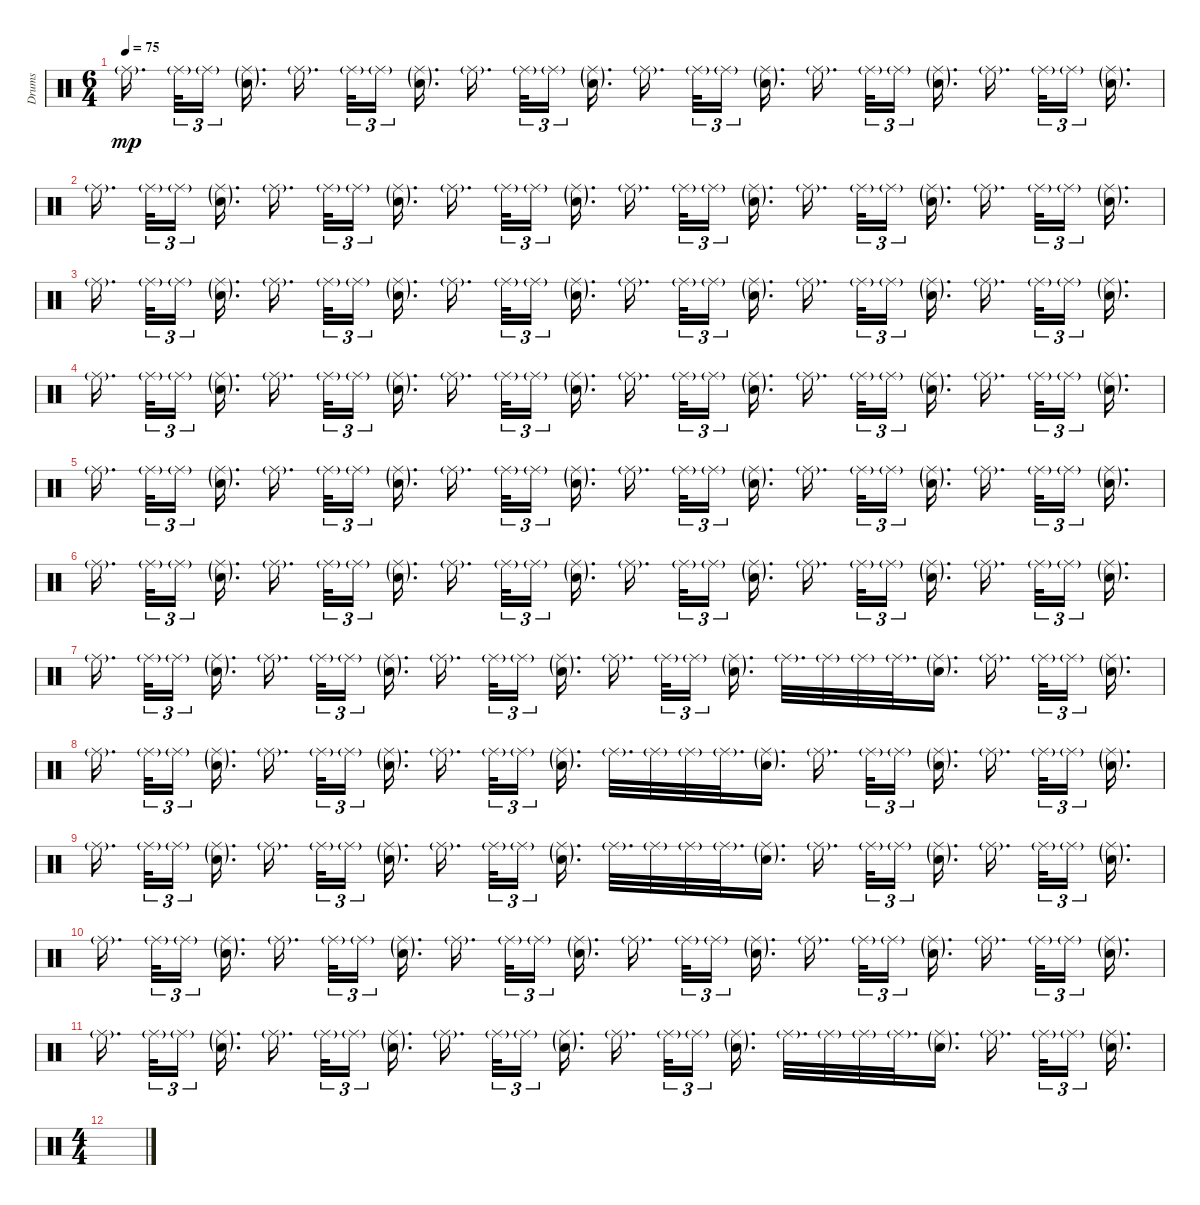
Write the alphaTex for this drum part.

\track ("Drums" "Drums") {instrument percussion}
\staff {score}
\articulation defaults
\ts (6 4)
\tempo 75
\clef neutral
\ks c "Ride (middle)"{g}.16{d dy mp beam splitsecondary} "Ride (middle)"{g}.32{tu (3 2)} "Ride (middle)"{g}.16{tu (3 2) beam splitsecondary}
("Ride (middle)"{g} "Snare (hit) 2"{g}).16{d} "Ride (middle)"{g}.16{d beam splitsecondary} "Ride (middle)"{g}.32{tu (3 2)} "Ride (middle)"{g}.16{tu (3 2) beam splitsecondary} ("Ride (middle)"{g} "Snare (hit) 2"{g}).16{d} "Ride (middle)"{g}.16{d beam splitsecondary} "Ride (middle)"{g}.32{tu (3 2)} "Ride (middle)"{g}.16{tu (3 2) beam splitsecondary} ("Ride (middle)"{g} "Snare (hit) 2"{g}).16{d} "Ride (middle)"{g}.16{d beam splitsecondary} "Ride (middle)"{g}.32{tu (3 2)} "Ride (middle)"{g}.16{tu (3 2) beam splitsecondary} ("Ride (middle)"{g} "Snare (hit) 2"{g}).16{d} "Ride (middle)"{g}.16{d beam splitsecondary} "Ride (middle)"{g}.32{tu (3 2)} "Ride (middle)"{g}.16{tu (3 2) beam splitsecondary} ("Ride (middle)"{g} "Snare (hit) 2"{g}).16{d} "Ride (middle)"{g}.16{d beam splitsecondary} "Ride (middle)"{g}.32{tu (3 2)} "Ride (middle)"{g}.16{tu (3 2) beam splitsecondary} ("Ride (middle)"{g} "Snare (hit) 2"{g}).16{d} |
"Ride (middle)"{g}.16{d beam splitsecondary} "Ride (middle)"{g}.32{tu (3 2)} "Ride (middle)"{g}.16{tu (3 2) beam splitsecondary} ("Ride (middle)"{g} "Snare (hit) 2"{g}).16{d} "Ride (middle)"{g}.16{d beam splitsecondary} "Ride (middle)"{g}.32{tu (3 2)} "Ride (middle)"{g}.16{tu (3 2) beam splitsecondary} ("Ride (middle)"{g} "Snare (hit) 2"{g}).16{d} "Ride (middle)"{g}.16{d beam splitsecondary} "Ride (middle)"{g}.32{tu (3 2)} "Ride (middle)"{g}.16{tu (3 2) beam splitsecondary} ("Ride (middle)"{g} "Snare (hit) 2"{g}).16{d} "Ride (middle)"{g}.16{d beam splitsecondary} "Ride (middle)"{g}.32{tu (3 2)} "Ride (middle)"{g}.16{tu (3 2) beam splitsecondary} ("Ride (middle)"{g} "Snare (hit) 2"{g}).16{d} "Ride (middle)"{g}.16{d beam splitsecondary} "Ride (middle)"{g}.32{tu (3 2)} "Ride (middle)"{g}.16{tu (3 2) beam splitsecondary} ("Ride (middle)"{g} "Snare (hit) 2"{g}).16{d} "Ride (middle)"{g}.16{d beam splitsecondary} "Ride (middle)"{g}.32{tu (3 2)} "Ride (middle)"{g}.16{tu (3 2) beam splitsecondary} ("Ride (middle)"{g} "Snare (hit) 2"{g}).16{d} |
"Ride (middle)"{g}.16{d beam splitsecondary} "Ride (middle)"{g}.32{tu (3 2)} "Ride (middle)"{g}.16{tu (3 2) beam splitsecondary} ("Ride (middle)"{g} "Snare (hit) 2"{g}).16{d} "Ride (middle)"{g}.16{d beam splitsecondary} "Ride (middle)"{g}.32{tu (3 2)} "Ride (middle)"{g}.16{tu (3 2) beam splitsecondary} ("Ride (middle)"{g} "Snare (hit) 2"{g}).16{d} "Ride (middle)"{g}.16{d beam splitsecondary} "Ride (middle)"{g}.32{tu (3 2)} "Ride (middle)"{g}.16{tu (3 2) beam splitsecondary} ("Ride (middle)"{g} "Snare (hit) 2"{g}).16{d} "Ride (middle)"{g}.16{d beam splitsecondary} "Ride (middle)"{g}.32{tu (3 2)} "Ride (middle)"{g}.16{tu (3 2) beam splitsecondary} ("Ride (middle)"{g} "Snare (hit) 2"{g}).16{d} "Ride (middle)"{g}.16{d beam splitsecondary} "Ride (middle)"{g}.32{tu (3 2)} "Ride (middle)"{g}.16{tu (3 2) beam splitsecondary} ("Ride (middle)"{g} "Snare (hit) 2"{g}).16{d} "Ride (middle)"{g}.16{d beam splitsecondary} "Ride (middle)"{g}.32{tu (3 2)} "Ride (middle)"{g}.16{tu (3 2) beam splitsecondary} ("Ride (middle)"{g} "Snare (hit) 2"{g}).16{d} |
"Ride (middle)"{g}.16{d beam splitsecondary} "Ride (middle)"{g}.32{tu (3 2)} "Ride (middle)"{g}.16{tu (3 2) beam splitsecondary} ("Ride (middle)"{g} "Snare (hit) 2"{g}).16{d} "Ride (middle)"{g}.16{d beam splitsecondary} "Ride (middle)"{g}.32{tu (3 2)} "Ride (middle)"{g}.16{tu (3 2) beam splitsecondary} ("Ride (middle)"{g} "Snare (hit) 2"{g}).16{d} "Ride (middle)"{g}.16{d beam splitsecondary} "Ride (middle)"{g}.32{tu (3 2)} "Ride (middle)"{g}.16{tu (3 2) beam splitsecondary} ("Ride (middle)"{g} "Snare (hit) 2"{g}).16{d} "Ride (middle)"{g}.16{d beam splitsecondary} "Ride (middle)"{g}.32{tu (3 2)} "Ride (middle)"{g}.16{tu (3 2) beam splitsecondary} ("Ride (middle)"{g} "Snare (hit) 2"{g}).16{d} "Ride (middle)"{g}.16{d beam splitsecondary} "Ride (middle)"{g}.32{tu (3 2)} "Ride (middle)"{g}.16{tu (3 2) beam splitsecondary} ("Ride (middle)"{g} "Snare (hit) 2"{g}).16{d} "Ride (middle)"{g}.16{d beam splitsecondary} "Ride (middle)"{g}.32{tu (3 2)} "Ride (middle)"{g}.16{tu (3 2) beam splitsecondary} ("Ride (middle)"{g} "Snare (hit) 2"{g}).16{d} |
"Ride (middle)"{g}.16{d beam splitsecondary} "Ride (middle)"{g}.32{tu (3 2)} "Ride (middle)"{g}.16{tu (3 2) beam splitsecondary} ("Ride (middle)"{g} "Snare (hit) 2"{g}).16{d} "Ride (middle)"{g}.16{d beam splitsecondary} "Ride (middle)"{g}.32{tu (3 2)} "Ride (middle)"{g}.16{tu (3 2) beam splitsecondary} ("Ride (middle)"{g} "Snare (hit) 2"{g}).16{d} "Ride (middle)"{g}.16{d beam splitsecondary} "Ride (middle)"{g}.32{tu (3 2)} "Ride (middle)"{g}.16{tu (3 2) beam splitsecondary} ("Ride (middle)"{g} "Snare (hit) 2"{g}).16{d} "Ride (middle)"{g}.16{d beam splitsecondary} "Ride (middle)"{g}.32{tu (3 2)} "Ride (middle)"{g}.16{tu (3 2) beam splitsecondary} ("Ride (middle)"{g} "Snare (hit) 2"{g}).16{d} "Ride (middle)"{g}.16{d beam splitsecondary} "Ride (middle)"{g}.32{tu (3 2)} "Ride (middle)"{g}.16{tu (3 2) beam splitsecondary} ("Ride (middle)"{g} "Snare (hit) 2"{g}).16{d} "Ride (middle)"{g}.16{d beam splitsecondary} "Ride (middle)"{g}.32{tu (3 2)} "Ride (middle)"{g}.16{tu (3 2) beam splitsecondary} ("Ride (middle)"{g} "Snare (hit) 2"{g}).16{d} |
"Ride (middle)"{g}.16{d beam splitsecondary} "Ride (middle)"{g}.32{tu (3 2)} "Ride (middle)"{g}.16{tu (3 2) beam splitsecondary} ("Ride (middle)"{g} "Snare (hit) 2"{g}).16{d} "Ride (middle)"{g}.16{d beam splitsecondary} "Ride (middle)"{g}.32{tu (3 2)} "Ride (middle)"{g}.16{tu (3 2) beam splitsecondary} ("Ride (middle)"{g} "Snare (hit) 2"{g}).16{d} "Ride (middle)"{g}.16{d beam splitsecondary} "Ride (middle)"{g}.32{tu (3 2)} "Ride (middle)"{g}.16{tu (3 2) beam splitsecondary} ("Ride (middle)"{g} "Snare (hit) 2"{g}).16{d} "Ride (middle)"{g}.16{d beam splitsecondary} "Ride (middle)"{g}.32{tu (3 2)} "Ride (middle)"{g}.16{tu (3 2) beam splitsecondary} ("Ride (middle)"{g} "Snare (hit) 2"{g}).16{d} "Ride (middle)"{g}.16{d beam splitsecondary} "Ride (middle)"{g}.32{tu (3 2)} "Ride (middle)"{g}.16{tu (3 2) beam splitsecondary} ("Ride (middle)"{g} "Snare (hit) 2"{g}).16{d} "Ride (middle)"{g}.16{d beam splitsecondary} "Ride (middle)"{g}.32{tu (3 2)} "Ride (middle)"{g}.16{tu (3 2) beam splitsecondary} ("Ride (middle)"{g} "Snare (hit) 2"{g}).16{d} |
"Ride (middle)"{g}.16{d beam splitsecondary} "Ride (middle)"{g}.32{tu (3 2)} "Ride (middle)"{g}.16{tu (3 2) beam splitsecondary} ("Ride (middle)"{g} "Snare (hit) 2"{g}).16{d} "Ride (middle)"{g}.16{d beam splitsecondary} "Ride (middle)"{g}.32{tu (3 2)} "Ride (middle)"{g}.16{tu (3 2) beam splitsecondary} ("Ride (middle)"{g} "Snare (hit) 2"{g}).16{d} "Ride (middle)"{g}.16{d beam splitsecondary} "Ride (middle)"{g}.32{tu (3 2)} "Ride (middle)"{g}.16{tu (3 2) beam splitsecondary} ("Ride (middle)"{g} "Snare (hit) 2"{g}).16{d} "Ride (middle)"{g}.16{d beam splitsecondary} "Ride (middle)"{g}.32{tu (3 2)} "Ride (middle)"{g}.16{tu (3 2) beam splitsecondary} ("Ride (middle)"{g} "Snare (hit) 2"{g}).16{d} "Ride (middle)"{g}.32{d} "Ride (middle)"{g}.32 "Ride (middle)"{g}.32 "Ride (middle)"{g}.32{d} ("Ride (middle)"{g} "Snare (hit) 2"{g}).16{d} "Ride (middle)"{g}.16{d beam splitsecondary} "Ride (middle)"{g}.32{tu (3 2)} "Ride (middle)"{g}.16{tu (3 2) beam splitsecondary} ("Ride (middle)"{g} "Snare (hit) 2"{g}).16{d} |
"Ride (middle)"{g}.16{d beam splitsecondary} "Ride (middle)"{g}.32{tu (3 2)} "Ride (middle)"{g}.16{tu (3 2) beam splitsecondary} ("Ride (middle)"{g} "Snare (hit) 2"{g}).16{d} "Ride (middle)"{g}.16{d beam splitsecondary} "Ride (middle)"{g}.32{tu (3 2)} "Ride (middle)"{g}.16{tu (3 2) beam splitsecondary} ("Ride (middle)"{g} "Snare (hit) 2"{g}).16{d} "Ride (middle)"{g}.16{d beam splitsecondary} "Ride (middle)"{g}.32{tu (3 2)} "Ride (middle)"{g}.16{tu (3 2) beam splitsecondary} ("Ride (middle)"{g} "Snare (hit) 2"{g}).16{d} "Ride (middle)"{g}.32{d} "Ride (middle)"{g}.32 "Ride (middle)"{g}.32 "Ride (middle)"{g}.32{d} ("Ride (middle)"{g} "Snare (hit) 2"{g}).16{d} "Ride (middle)"{g}.16{d beam splitsecondary} "Ride (middle)"{g}.32{tu (3 2)} "Ride (middle)"{g}.16{tu (3 2) beam splitsecondary} ("Ride (middle)"{g} "Snare (hit) 2"{g}).16{d} "Ride (middle)"{g}.16{d beam splitsecondary} "Ride (middle)"{g}.32{tu (3 2)} "Ride (middle)"{g}.16{tu (3 2) beam splitsecondary} ("Ride (middle)"{g} "Snare (hit) 2"{g}).16{d} |
"Ride (middle)"{g}.16{d beam splitsecondary} "Ride (middle)"{g}.32{tu (3 2)} "Ride (middle)"{g}.16{tu (3 2) beam splitsecondary} ("Ride (middle)"{g} "Snare (hit) 2"{g}).16{d} "Ride (middle)"{g}.16{d beam splitsecondary} "Ride (middle)"{g}.32{tu (3 2)} "Ride (middle)"{g}.16{tu (3 2) beam splitsecondary} ("Ride (middle)"{g} "Snare (hit) 2"{g}).16{d} "Ride (middle)"{g}.16{d beam splitsecondary} "Ride (middle)"{g}.32{tu (3 2)} "Ride (middle)"{g}.16{tu (3 2) beam splitsecondary} ("Ride (middle)"{g} "Snare (hit) 2"{g}).16{d} "Ride (middle)"{g}.32{d} "Ride (middle)"{g}.32 "Ride (middle)"{g}.32 "Ride (middle)"{g}.32{d} ("Ride (middle)"{g} "Snare (hit) 2"{g}).16{d} "Ride (middle)"{g}.16{d beam splitsecondary} "Ride (middle)"{g}.32{tu (3 2)} "Ride (middle)"{g}.16{tu (3 2) beam splitsecondary} ("Ride (middle)"{g} "Snare (hit) 2"{g}).16{d} "Ride (middle)"{g}.16{d beam splitsecondary} "Ride (middle)"{g}.32{tu (3 2)} "Ride (middle)"{g}.16{tu (3 2) beam splitsecondary} ("Ride (middle)"{g} "Snare (hit) 2"{g}).16{d} |
"Ride (middle)"{g}.16{d beam splitsecondary} "Ride (middle)"{g}.32{tu (3 2)} "Ride (middle)"{g}.16{tu (3 2) beam splitsecondary} ("Ride (middle)"{g} "Snare (hit) 2"{g}).16{d} "Ride (middle)"{g}.16{d beam splitsecondary} "Ride (middle)"{g}.32{tu (3 2)} "Ride (middle)"{g}.16{tu (3 2) beam splitsecondary} ("Ride (middle)"{g} "Snare (hit) 2"{g}).16{d} "Ride (middle)"{g}.16{d beam splitsecondary} "Ride (middle)"{g}.32{tu (3 2)} "Ride (middle)"{g}.16{tu (3 2) beam splitsecondary} ("Ride (middle)"{g} "Snare (hit) 2"{g}).16{d} "Ride (middle)"{g}.16{d beam splitsecondary} "Ride (middle)"{g}.32{tu (3 2)} "Ride (middle)"{g}.16{tu (3 2) beam splitsecondary} ("Ride (middle)"{g} "Snare (hit) 2"{g}).16{d} "Ride (middle)"{g}.16{d beam splitsecondary} "Ride (middle)"{g}.32{tu (3 2)} "Ride (middle)"{g}.16{tu (3 2) beam splitsecondary} ("Ride (middle)"{g} "Snare (hit) 2"{g}).16{d} "Ride (middle)"{g}.16{d beam splitsecondary} "Ride (middle)"{g}.32{tu (3 2)} "Ride (middle)"{g}.16{tu (3 2) beam splitsecondary} ("Ride (middle)"{g} "Snare (hit) 2"{g}).16{d} |
"Ride (middle)"{g}.16{d beam splitsecondary} "Ride (middle)"{g}.32{tu (3 2)} "Ride (middle)"{g}.16{tu (3 2) beam splitsecondary} ("Ride (middle)"{g} "Snare (hit) 2"{g}).16{d} "Ride (middle)"{g}.16{d beam splitsecondary} "Ride (middle)"{g}.32{tu (3 2)} "Ride (middle)"{g}.16{tu (3 2) beam splitsecondary} ("Ride (middle)"{g} "Snare (hit) 2"{g}).16{d} "Ride (middle)"{g}.16{d beam splitsecondary} "Ride (middle)"{g}.32{tu (3 2)} "Ride (middle)"{g}.16{tu (3 2) beam splitsecondary} ("Ride (middle)"{g} "Snare (hit) 2"{g}).16{d} "Ride (middle)"{g}.16{d beam splitsecondary} "Ride (middle)"{g}.32{tu (3 2)} "Ride (middle)"{g}.16{tu (3 2) beam splitsecondary} ("Ride (middle)"{g} "Snare (hit) 2"{g}).16{d} "Ride (middle)"{g}.32{d} "Ride (middle)"{g}.32 "Ride (middle)"{g}.32 "Ride (middle)"{g}.32{d} ("Ride (middle)"{g} "Snare (hit) 2"{g}).16{d} "Ride (middle)"{g}.16{d beam splitsecondary} "Ride (middle)"{g}.32{tu (3 2)} "Ride (middle)"{g}.16{tu (3 2) beam splitsecondary} ("Ride (middle)"{g} "Snare (hit) 2"{g}).16{d} |
\ts (4 4)
